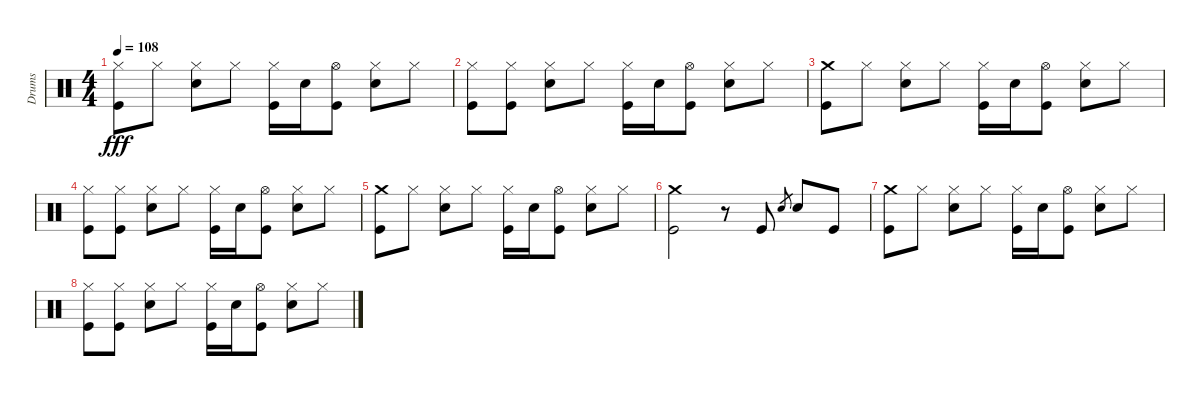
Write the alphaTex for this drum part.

\track ("Drums" "Drums") {instrument percussion}
\staff {score}
\articulation defaults
\ts (4 4)
\tempo 108
\clef neutral
\ks c
("Hi-Hat (closed)" "Kick (hit)").8{dy fff} "Hi-Hat (closed)".8 ("Hi-Hat (closed)" "Snare (hit) 2").8 "Hi-Hat (closed)".8 ("Hi-Hat (closed)" "Kick (hit)").16 "Snare (hit) 2".16 ("Hi-Hat (open)" "Kick (hit)").8 ("Hi-Hat (closed)" "Snare (hit) 2").8 "Hi-Hat (closed)".8 |
("Hi-Hat (closed)" "Kick (hit)").8 ("Hi-Hat (closed)" "Kick (hit)").8 ("Hi-Hat (closed)" "Snare (hit) 2").8 "Hi-Hat (closed)".8 ("Hi-Hat (closed)" "Kick (hit)").16 "Snare (hit) 2".16 ("Hi-Hat (open)" "Kick (hit)").8 ("Hi-Hat (closed)" "Snare (hit) 2").8 "Hi-Hat (closed)".8 |
("Crash medium (hit)" "Kick (hit)").8{volume 9} "Hi-Hat (closed)".8 ("Hi-Hat (closed)" "Snare (hit) 2").8 "Hi-Hat (closed)".8 ("Hi-Hat (closed)" "Kick (hit)").16 "Snare (hit) 2".16 ("Hi-Hat (open)" "Kick (hit)").8 ("Hi-Hat (closed)" "Snare (hit) 2").8 "Hi-Hat (closed)".8 |
("Hi-Hat (closed)" "Kick (hit)").8 ("Hi-Hat (closed)" "Kick (hit)").8 ("Hi-Hat (closed)" "Snare (hit) 2").8 "Hi-Hat (closed)".8 ("Hi-Hat (closed)" "Kick (hit)").16 "Snare (hit) 2".16 ("Hi-Hat (open)" "Kick (hit)").8 ("Hi-Hat (closed)" "Snare (hit) 2").8 "Hi-Hat (closed)".8 |
("Crash medium (hit)" "Kick (hit)").8{volume 5} "Hi-Hat (closed)".8 ("Hi-Hat (closed)" "Snare (hit) 2").8 "Hi-Hat (closed)".8 ("Hi-Hat (closed)" "Kick (hit)").16 "Snare (hit) 2".16 ("Hi-Hat (open)" "Kick (hit)").8 ("Hi-Hat (closed)" "Snare (hit) 2").8 "Hi-Hat (closed)".8 |
("Crash medium (hit)" "Kick (hit)").2 r.8 "Kick (hit)".8 "Snare (hit) 2".8{gr} "Snare (hit) 2".8 "Kick (hit)".8 |
("Crash medium (hit)" "Kick (hit)").8{volume 0} "Hi-Hat (closed)".8 ("Hi-Hat (closed)" "Snare (hit) 2").8 "Hi-Hat (closed)".8 ("Hi-Hat (closed)" "Kick (hit)").16 "Snare (hit) 2".16 ("Hi-Hat (open)" "Kick (hit)").8 ("Hi-Hat (closed)" "Snare (hit) 2").8 "Hi-Hat (closed)".8 |
("Hi-Hat (closed)" "Kick (hit)").8 ("Hi-Hat (closed)" "Kick (hit)").8 ("Hi-Hat (closed)" "Snare (hit) 2").8 "Hi-Hat (closed)".8 ("Hi-Hat (closed)" "Kick (hit)").16 "Snare (hit) 2".16 ("Hi-Hat (open)" "Kick (hit)").8 ("Hi-Hat (closed)" "Snare (hit) 2").8 "Hi-Hat (closed)".8
